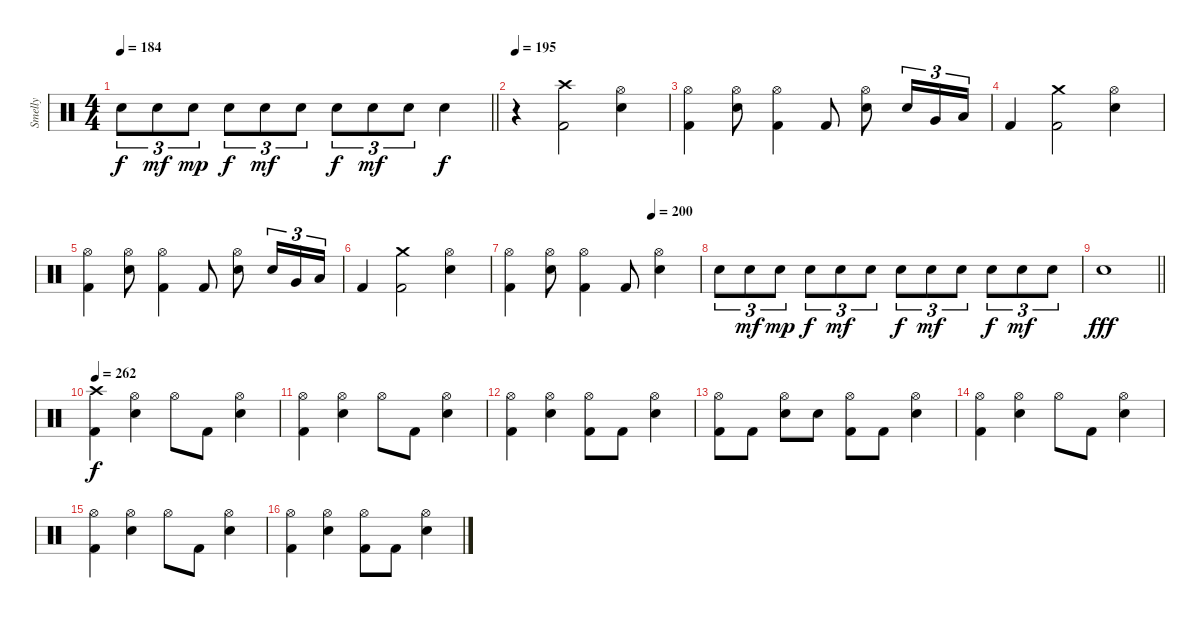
\track ("Smelly" "Smelly") {instrument percussion}
\staff {score}
\articulation defaults
\ts (4 4)
\tempo 184
\clef neutral
\barLineRight lightlight
\ks c "Electric Snare (hit)".8{tu (3 2) dy f} "Electric Snare (hit)".8{tu (3 2) dy mf} "Electric Snare (hit)".8{tu (3 2) dy mp} "Electric Snare (hit)".8{tu (3 2) dy f} "Electric Snare (hit)".8{tu (3 2) dy mf} "Electric Snare (hit)".8{tu (3 2)} "Electric Snare (hit)".8{tu (3 2) dy f} "Electric Snare (hit)".8{tu (3 2) dy mf} "Electric Snare (hit)".8{tu (3 2)} "Electric Snare (hit)".4{dy f}
|
\section ("" "")
\tempo 195
r.4 ("Crash high (hit)" "Kick (hit) 2").2 ("Hi-Hat (open)" "Electric Snare (hit)").4 |
("Hi-Hat (open)" "Kick (hit) 2").4 ("Hi-Hat (open)" "Electric Snare (hit)").8 ("Hi-Hat (open)" "Kick (hit) 2").4 "Kick (hit) 2".8 ("Hi-Hat (open)" "Electric Snare (hit)").8 "Electric Snare (hit)".16{tu (3 2)} "Very Low Tom (hit)".16{tu (3 2)} "Low Floor Tom (hit)".16{tu (3 2)} |
"Kick (hit) 2".4 ("Crash medium (hit)" "Kick (hit) 2").2 ("Hi-Hat (open)" "Electric Snare (hit)").4 |
("Hi-Hat (open)" "Kick (hit) 2").4 ("Hi-Hat (open)" "Electric Snare (hit)").8 ("Hi-Hat (open)" "Kick (hit) 2").4 "Kick (hit) 2".8 ("Hi-Hat (open)" "Electric Snare (hit)").8 "Electric Snare (hit)".16{tu (3 2)} "Very Low Tom (hit)".16{tu (3 2)} "Low Floor Tom (hit)".16{tu (3 2)} |
"Kick (hit) 2".4 ("Crash medium (hit)" "Kick (hit) 2").2 ("Hi-Hat (open)" "Electric Snare (hit)").4 |
\tempo (200 0.75)
("Hi-Hat (open)" "Kick (hit) 2").4 ("Hi-Hat (open)" "Electric Snare (hit)").8 ("Hi-Hat (open)" "Kick (hit) 2").4 "Kick (hit) 2".8 ("Hi-Hat (open)" "Electric Snare (hit)").4 |
"Electric Snare (hit)".8{tu (3 2)} "Electric Snare (hit)".8{tu (3 2) dy mf} "Electric Snare (hit)".8{tu (3 2) dy mp} "Electric Snare (hit)".8{tu (3 2) dy f} "Electric Snare (hit)".8{tu (3 2) dy mf} "Electric Snare (hit)".8{tu (3 2)} "Electric Snare (hit)".8{tu (3 2) dy f} "Electric Snare (hit)".8{tu (3 2) dy mf} "Electric Snare (hit)".8{tu (3 2)} "Electric Snare (hit)".8{tu (3 2) dy f} "Electric Snare (hit)".8{tu (3 2) dy mf} "Electric Snare (hit)".8{tu (3 2)} |
\barLineRight lightlight "Electric Snare (hit)".1{dy fff}
|
\section ("" "")
\tempo 262
("Crash high (hit)" "Kick (hit) 2").4{dy f} ("Hi-Hat (open)" "Electric Snare (hit)").4 "Hi-Hat (open)".8 "Kick (hit) 2".8 ("Hi-Hat (open)" "Electric Snare (hit)").4 |
("Hi-Hat (open)" "Kick (hit) 2").4 ("Hi-Hat (open)" "Electric Snare (hit)").4 "Hi-Hat (open)".8 "Kick (hit) 2".8 ("Hi-Hat (open)" "Electric Snare (hit)").4 |
("Hi-Hat (open)" "Kick (hit) 2").4 ("Hi-Hat (open)" "Electric Snare (hit)").4 ("Hi-Hat (open)" "Kick (hit) 2").8 "Kick (hit) 2".8 ("Hi-Hat (open)" "Electric Snare (hit)").4 |
("Hi-Hat (open)" "Kick (hit) 2").8 "Kick (hit) 2".8 ("Hi-Hat (open)" "Electric Snare (hit)").8 "Electric Snare (hit)".8 ("Hi-Hat (open)" "Kick (hit) 2").8 "Kick (hit) 2".8 ("Hi-Hat (open)" "Electric Snare (hit)").4 |
("Hi-Hat (open)" "Kick (hit) 2").4 ("Hi-Hat (open)" "Electric Snare (hit)").4 "Hi-Hat (open)".8 "Kick (hit) 2".8 ("Hi-Hat (open)" "Electric Snare (hit)").4 |
("Hi-Hat (open)" "Kick (hit) 2").4 ("Hi-Hat (open)" "Electric Snare (hit)").4 "Hi-Hat (open)".8 "Kick (hit) 2".8 ("Hi-Hat (open)" "Electric Snare (hit)").4 |
("Hi-Hat (open)" "Kick (hit) 2").4 ("Hi-Hat (open)" "Electric Snare (hit)").4 ("Hi-Hat (open)" "Kick (hit) 2").8 "Kick (hit) 2".8 ("Hi-Hat (open)" "Electric Snare (hit)").4
